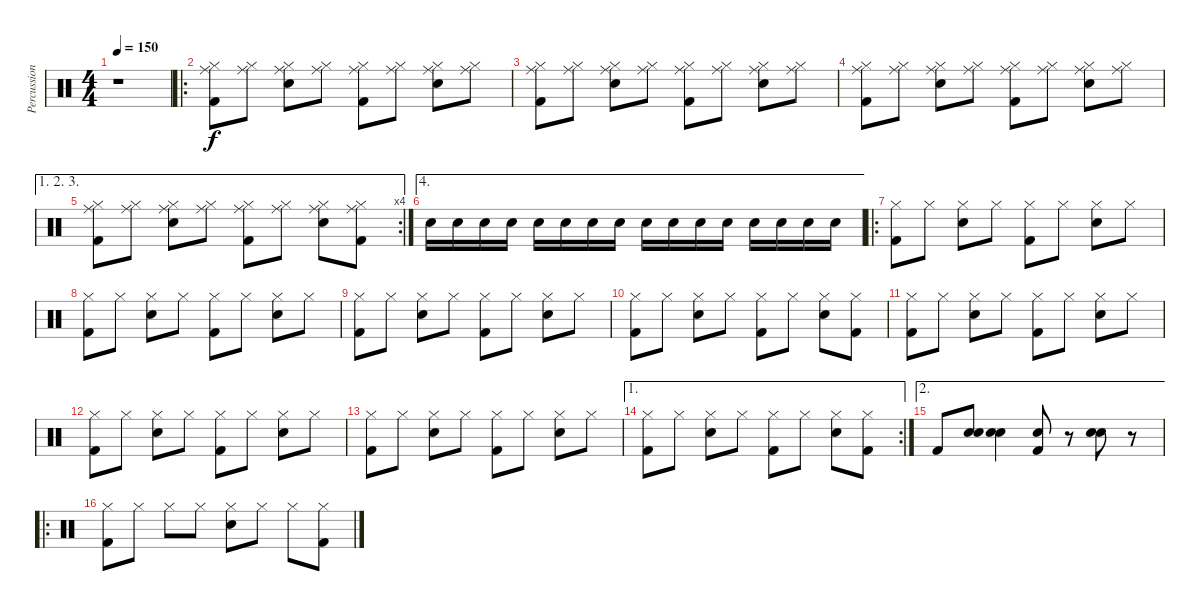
\track ("Percussion" "Percussion") {instrument percussion}
\staff {score}
\articulation defaults
\ts (4 4)
\tempo 150
\clef neutral
\ks c
r.1{dy f} |
\ro
("Hi-Hat (closed)" "Ride (middle)" "Kick (hit) 2").8 ("Hi-Hat (closed)" "Ride (middle)").8 ("Hi-Hat (closed)" "Ride (middle)" "Electric Snare (hit)").8 ("Hi-Hat (closed)" "Ride (middle)").8 ("Hi-Hat (closed)" "Ride (middle)" "Kick (hit) 2").8 ("Hi-Hat (closed)" "Ride (middle)").8 ("Hi-Hat (closed)" "Ride (middle)" "Electric Snare (hit)").8 ("Hi-Hat (closed)" "Ride (middle)").8 |
("Hi-Hat (closed)" "Ride (middle)" "Kick (hit) 2").8 ("Hi-Hat (closed)" "Ride (middle)").8 ("Hi-Hat (closed)" "Ride (middle)" "Electric Snare (hit)").8 ("Hi-Hat (closed)" "Ride (middle)").8 ("Hi-Hat (closed)" "Ride (middle)" "Kick (hit) 2").8 ("Hi-Hat (closed)" "Ride (middle)").8 ("Hi-Hat (closed)" "Ride (middle)" "Electric Snare (hit)").8 ("Hi-Hat (closed)" "Ride (middle)").8 |
("Hi-Hat (closed)" "Ride (middle)" "Kick (hit) 2").8 ("Hi-Hat (closed)" "Ride (middle)").8 ("Hi-Hat (closed)" "Ride (middle)" "Electric Snare (hit)").8 ("Hi-Hat (closed)" "Ride (middle)").8 ("Hi-Hat (closed)" "Ride (middle)" "Kick (hit) 2").8 ("Hi-Hat (closed)" "Ride (middle)").8 ("Hi-Hat (closed)" "Ride (middle)" "Electric Snare (hit)").8 ("Hi-Hat (closed)" "Ride (middle)").8 |
\ae (1 2 3)
\rc 4
("Hi-Hat (closed)" "Ride (middle)" "Kick (hit) 2").8 ("Hi-Hat (closed)" "Ride (middle)").8 ("Hi-Hat (closed)" "Ride (middle)" "Electric Snare (hit)").8 ("Hi-Hat (closed)" "Ride (middle)").8 ("Hi-Hat (closed)" "Ride (middle)" "Kick (hit) 2").8 ("Hi-Hat (closed)" "Ride (middle)").8 ("Hi-Hat (closed)" "Ride (middle)" "Electric Snare (hit)").8 ("Hi-Hat (closed)" "Ride (middle)" "Kick (hit) 2").8 |
\ae 4 "Electric Snare (hit)".16 "Electric Snare (hit)".16 "Electric Snare (hit)".16 "Electric Snare (hit)".16 "Electric Snare (hit)".16 "Electric Snare (hit)".16 "Electric Snare (hit)".16 "Electric Snare (hit)".16 "Electric Snare (hit)".16 "Electric Snare (hit)".16 "Electric Snare (hit)".16 "Electric Snare (hit)".16 "Electric Snare (hit)".16 "Electric Snare (hit)".16 "Electric Snare (hit)".16 "Electric Snare (hit)".16
|
\ro
("Hi-Hat (closed)" "Kick (hit) 2").8 "Hi-Hat (closed)".8 ("Hi-Hat (closed)" "Electric Snare (hit)").8 "Hi-Hat (closed)".8 ("Hi-Hat (closed)" "Kick (hit) 2").8 "Hi-Hat (closed)".8 ("Hi-Hat (closed)" "Electric Snare (hit)").8 "Hi-Hat (closed)".8 |
("Hi-Hat (closed)" "Kick (hit) 2").8 "Hi-Hat (closed)".8 ("Hi-Hat (closed)" "Electric Snare (hit)").8 "Hi-Hat (closed)".8 ("Hi-Hat (closed)" "Kick (hit) 2").8 "Hi-Hat (closed)".8 ("Hi-Hat (closed)" "Electric Snare (hit)").8 "Hi-Hat (closed)".8 |
("Hi-Hat (closed)" "Kick (hit) 2").8 "Hi-Hat (closed)".8 ("Hi-Hat (closed)" "Electric Snare (hit)").8 "Hi-Hat (closed)".8 ("Hi-Hat (closed)" "Kick (hit) 2").8 "Hi-Hat (closed)".8 ("Hi-Hat (closed)" "Electric Snare (hit)").8 "Hi-Hat (closed)".8 |
("Hi-Hat (closed)" "Kick (hit) 2").8 "Hi-Hat (closed)".8 ("Hi-Hat (closed)" "Electric Snare (hit)").8 "Hi-Hat (closed)".8 ("Hi-Hat (closed)" "Kick (hit) 2").8 "Hi-Hat (closed)".8 ("Hi-Hat (closed)" "Electric Snare (hit)").8 ("Hi-Hat (closed)" "Kick (hit) 2").8 |
("Hi-Hat (closed)" "Kick (hit) 2").8 "Hi-Hat (closed)".8 ("Hi-Hat (closed)" "Electric Snare (hit)").8 "Hi-Hat (closed)".8 ("Hi-Hat (closed)" "Kick (hit) 2").8 "Hi-Hat (closed)".8 ("Hi-Hat (closed)" "Electric Snare (hit)").8 "Hi-Hat (closed)".8 |
("Hi-Hat (closed)" "Kick (hit) 2").8 "Hi-Hat (closed)".8 ("Hi-Hat (closed)" "Electric Snare (hit)").8 "Hi-Hat (closed)".8 ("Hi-Hat (closed)" "Kick (hit) 2").8 "Hi-Hat (closed)".8 ("Hi-Hat (closed)" "Electric Snare (hit)").8 "Hi-Hat (closed)".8 |
("Hi-Hat (closed)" "Kick (hit) 2").8 "Hi-Hat (closed)".8 ("Hi-Hat (closed)" "Electric Snare (hit)").8 "Hi-Hat (closed)".8 ("Hi-Hat (closed)" "Kick (hit) 2").8 "Hi-Hat (closed)".8 ("Hi-Hat (closed)" "Electric Snare (hit)").8 "Hi-Hat (closed)".8 |
\ae 1
\rc 2
("Hi-Hat (closed)" "Kick (hit) 2").8 "Hi-Hat (closed)".8 ("Hi-Hat (closed)" "Electric Snare (hit)").8 "Hi-Hat (closed)".8 ("Hi-Hat (closed)" "Kick (hit) 2").8 "Hi-Hat (closed)".8 ("Hi-Hat (closed)" "Electric Snare (hit)").8 ("Hi-Hat (closed)" "Kick (hit) 2").8 |
\ae 2 "Kick (hit) 2".8
("Electric Snare (hit)" "Electric Snare (hit)").8 ("Electric Snare (hit)" "Electric Snare (hit)").4 ("Electric Snare (hit)" "Kick (hit) 2").8 r.8 ("Electric Snare (hit)" "Electric Snare (hit)").8 r.8 |
\ro
("Hi-Hat (closed)" "Kick (hit) 2").8 "Hi-Hat (closed)".8 "Hi-Hat (closed)".8 "Hi-Hat (closed)".8 ("Hi-Hat (closed)" "Electric Snare (hit)").8 "Hi-Hat (closed)".8 "Hi-Hat (closed)".8 ("Hi-Hat (closed)" "Kick (hit) 2").8
